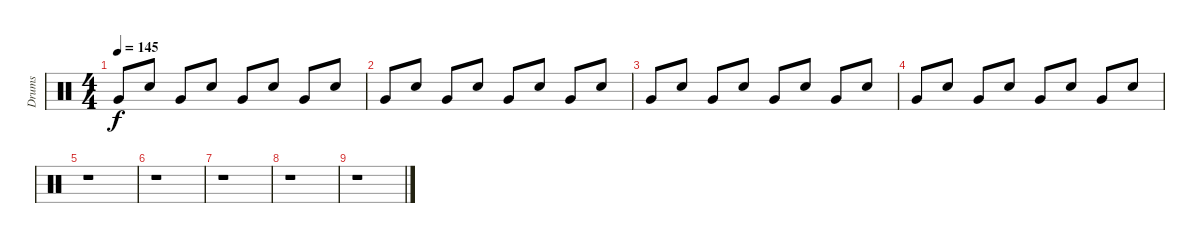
\track ("Drums" "Drums") {instrument percussion}
\staff {score}
\articulation defaults
\ts (4 4)
\tempo 145
\clef neutral
\ks c "Very Low Tom (hit)".8{dy f} "Snare (hit) 2".8 "Very Low Tom (hit)".8 "Snare (hit) 2".8 "Very Low Tom (hit)".8 "Snare (hit) 2".8 "Very Low Tom (hit)".8 "Snare (hit) 2".8
|
"Very Low Tom (hit)".8 "Snare (hit) 2".8 "Very Low Tom (hit)".8 "Snare (hit) 2".8 "Very Low Tom (hit)".8 "Snare (hit) 2".8 "Very Low Tom (hit)".8 "Snare (hit) 2".8 |
"Very Low Tom (hit)".8 "Snare (hit) 2".8 "Very Low Tom (hit)".8 "Snare (hit) 2".8 "Very Low Tom (hit)".8 "Snare (hit) 2".8 "Very Low Tom (hit)".8 "Snare (hit) 2".8 |
"Very Low Tom (hit)".8 "Snare (hit) 2".8 "Very Low Tom (hit)".8 "Snare (hit) 2".8 "Very Low Tom (hit)".8 "Snare (hit) 2".8 "Very Low Tom (hit)".8 "Snare (hit) 2".8 |
r.1 |
r.1 |
r.1 |
r.1 |
r.1
